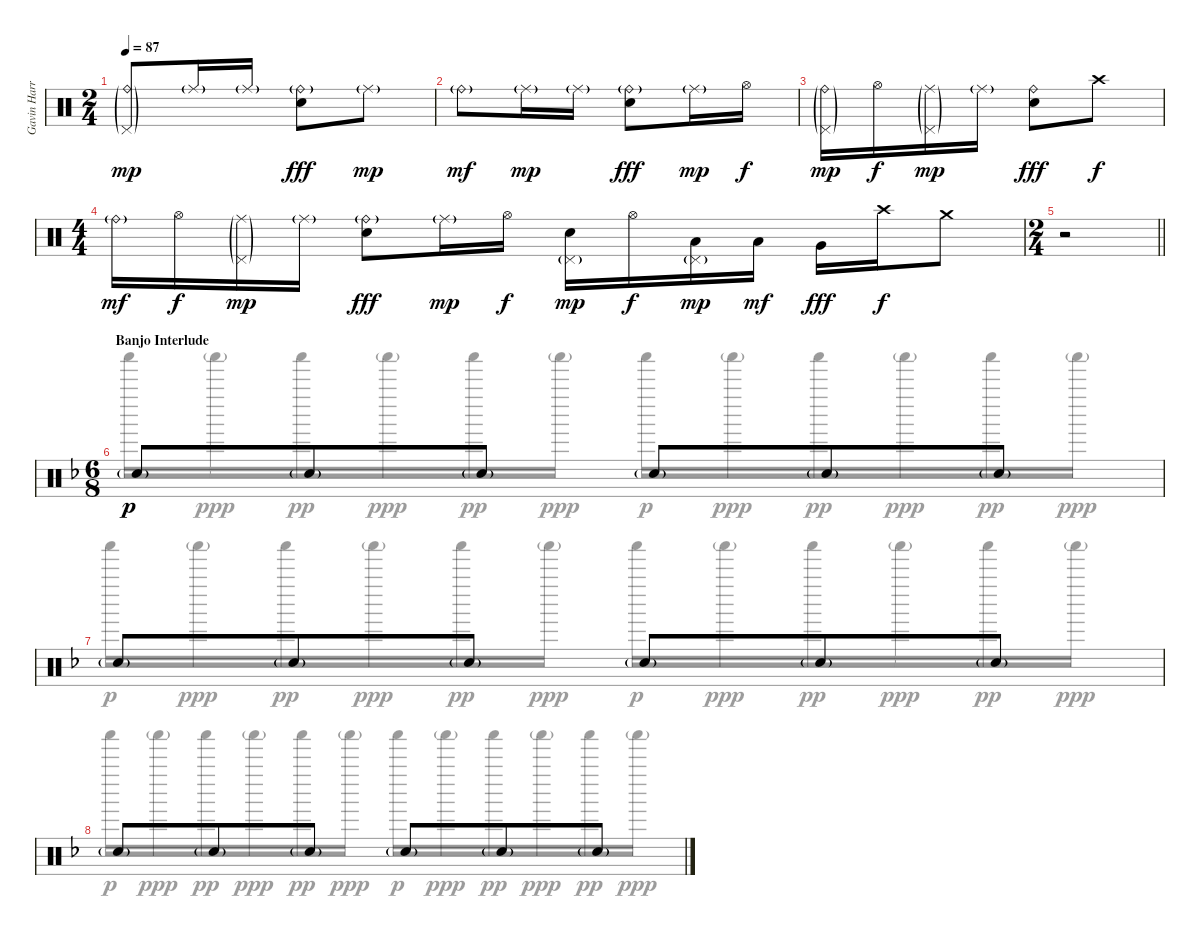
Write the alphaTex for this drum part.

\track ("Gavin Harrison Drums" "Gavin Harr") {instrument percussion}
\staff {score}
\articulation defaults
\voice
\ts (2 4)
\tempo 87
\clef neutral
\ks aminor
("Ride (bell)"{g} "Pedal Hi-Hat (hit)"{g}).8{dy mp} "Ride (middle)"{g}.16 "Ride (middle)"{g}.16 ("Ride (bell)"{g} "Electric Snare (hit)").8{dy fff} "Ride (middle)"{g}.8{dy mp} |
"Ride (bell)"{g}.8{dy mf} "Ride (middle)"{g}.16{dy mp} "Ride (middle)"{g}.16 ("Ride (bell)"{g} "Electric Snare (hit)").8{dy fff} "Ride (middle)"{g}.16{dy mp} "Hi-Hat (open)".16{dy f} |
("Ride (bell)"{g} "Pedal Hi-Hat (hit)"{g}).16{dy mp} "Hi-Hat (open)".16{dy f} ("Ride (middle)"{g} "Pedal Hi-Hat (hit)"{g}).16{dy mp} "Ride (middle)"{g}.16 ("Ride (bell)" "Electric Snare (hit)").8{dy fff} "Crash high (hit)".8{dy f} |
\ts (4 4)
"Ride (bell)"{g}.16{dy mf} "Hi-Hat (open)".16{dy f} ("Ride (middle)"{g} "Pedal Hi-Hat (hit)"{g}).16{dy mp} "Ride (middle)"{g}.16 ("Ride (bell)"{g} "Electric Snare (hit)").8{dy fff} "Ride (middle)"{g}.16{dy mp} "Hi-Hat (open)".16{dy f} ("Electric Snare (hit)" "Pedal Hi-Hat (hit)"{g}).16{dy mp} "Hi-Hat (open)".16{dy f} ("Low Tom (hit)" "Pedal Hi-Hat (hit)"{g}).16{dy mp} "Low Tom (hit)".16{dy mf} "Very Low Tom (hit)".16{dy fff} "Crash high (hit)".16{dy f} "Crash medium (hit)".8 |
\ts (2 4)
\barLineRight lightlight
r.2 |
\ts (6 8)
\section ("" "Banjo Interlude")
\ks f "Hand Clap (hit)"{g}.8{dy p} "Hand Clap (hit)"{g}.8 "Hand Clap (hit)"{g}.8 "Hand Clap (hit)"{g}.8 "Hand Clap (hit)"{g}.8 "Hand Clap (hit)"{g}.8
|
"Hand Clap (hit)"{g}.8 "Hand Clap (hit)"{g}.8 "Hand Clap (hit)"{g}.8 "Hand Clap (hit)"{g}.8 "Hand Clap (hit)"{g}.8 "Hand Clap (hit)"{g}.8 |
"Hand Clap (hit)"{g}.8 "Hand Clap (hit)"{g}.8 "Hand Clap (hit)"{g}.8 "Hand Clap (hit)"{g}.8 "Hand Clap (hit)"{g}.8 "Hand Clap (hit)"{g}.8
\voice
\clef neutral
\ottava regular
\simile none
\ks aminor
|
|
|
|
\barLineRight lightlight
|
\ks f "Shaker (hit)".16 "Shaker (hit)"{g}.16{dy ppp} "Shaker (hit)".16{dy pp} "Shaker (hit)"{g}.16{dy ppp} "Shaker (hit)".16{dy pp} "Shaker (hit)"{g}.16{dy ppp} "Shaker (hit)".16{dy p} "Shaker (hit)"{g}.16{dy ppp} "Shaker (hit)".16{dy pp} "Shaker (hit)"{g}.16{dy ppp} "Shaker (hit)".16{dy pp} "Shaker (hit)"{g}.16{dy ppp}
|
"Shaker (hit)".16{dy p} "Shaker (hit)"{g}.16{dy ppp} "Shaker (hit)".16{dy pp} "Shaker (hit)"{g}.16{dy ppp} "Shaker (hit)".16{dy pp} "Shaker (hit)"{g}.16{dy ppp} "Shaker (hit)".16{dy p} "Shaker (hit)"{g}.16{dy ppp} "Shaker (hit)".16{dy pp} "Shaker (hit)"{g}.16{dy ppp} "Shaker (hit)".16{dy pp} "Shaker (hit)"{g}.16{dy ppp} |
"Shaker (hit)".16{dy p} "Shaker (hit)"{g}.16{dy ppp} "Shaker (hit)".16{dy pp} "Shaker (hit)"{g}.16{dy ppp} "Shaker (hit)".16{dy pp} "Shaker (hit)"{g}.16{dy ppp} "Shaker (hit)".16{dy p} "Shaker (hit)"{g}.16{dy ppp} "Shaker (hit)".16{dy pp} "Shaker (hit)"{g}.16{dy ppp} "Shaker (hit)".16{dy pp} "Shaker (hit)"{g}.16{dy ppp}
